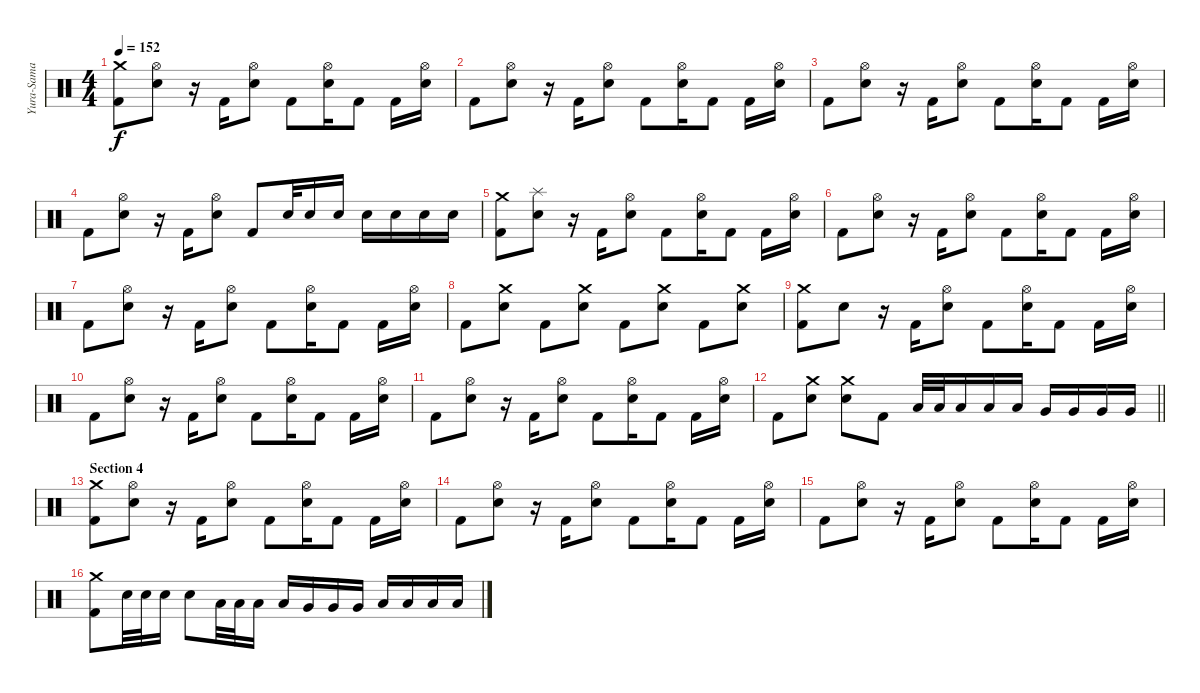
\track ("Yura-Sama" "Yura-Sama") {instrument percussion}
\staff {score}
\articulation defaults
\ts (4 4)
\tempo 152
\clef neutral
\ks c
("Kick (hit) 2" "Crash medium (hit)").8{dy f} ("Electric Snare (hit)" "Hi-Hat (open)").8 r.16 "Kick (hit) 2".16 ("Electric Snare (hit)" "Hi-Hat (open)").8 "Kick (hit) 2".8 ("Electric Snare (hit)" "Hi-Hat (open)").16 "Kick (hit) 2".8 "Kick (hit) 2".16 ("Electric Snare (hit)" "Hi-Hat (open)").16 |
"Kick (hit) 2".8 ("Electric Snare (hit)" "Hi-Hat (open)").8 r.16 "Kick (hit) 2".16 ("Electric Snare (hit)" "Hi-Hat (open)").8 "Kick (hit) 2".8 ("Electric Snare (hit)" "Hi-Hat (open)").16 "Kick (hit) 2".8 "Kick (hit) 2".16 ("Electric Snare (hit)" "Hi-Hat (open)").16 |
"Kick (hit) 2".8 ("Electric Snare (hit)" "Hi-Hat (open)").8 r.16 "Kick (hit) 2".16 ("Electric Snare (hit)" "Hi-Hat (open)").8 "Kick (hit) 2".8 ("Electric Snare (hit)" "Hi-Hat (open)").16 "Kick (hit) 2".8 "Kick (hit) 2".16 ("Electric Snare (hit)" "Hi-Hat (open)").16 |
"Kick (hit) 2".8 ("Electric Snare (hit)" "Hi-Hat (open)").8 r.16 "Kick (hit) 2".16 ("Electric Snare (hit)" "Hi-Hat (open)").8 "Kick (hit) 2".8 "Electric Snare (hit)".32 "Electric Snare (hit)".16 "Electric Snare (hit)".16 "Electric Snare (hit)".16 "Electric Snare (hit)".16 "Electric Snare (hit)".16 "Electric Snare (hit)".16 |
("Kick (hit) 2" "Crash medium (hit)").8 ("Electric Snare (hit)" "Splash (hit)").8 r.16 "Kick (hit) 2".16 ("Electric Snare (hit)" "Hi-Hat (open)").8 "Kick (hit) 2".8 ("Electric Snare (hit)" "Hi-Hat (open)").16 "Kick (hit) 2".8 "Kick (hit) 2".16 ("Electric Snare (hit)" "Hi-Hat (open)").16 |
"Kick (hit) 2".8 ("Electric Snare (hit)" "Hi-Hat (open)").8 r.16 "Kick (hit) 2".16 ("Electric Snare (hit)" "Hi-Hat (open)").8 "Kick (hit) 2".8 ("Electric Snare (hit)" "Hi-Hat (open)").16 "Kick (hit) 2".8 "Kick (hit) 2".16 ("Electric Snare (hit)" "Hi-Hat (open)").16 |
"Kick (hit) 2".8 ("Electric Snare (hit)" "Hi-Hat (open)").8 r.16 "Kick (hit) 2".16 ("Electric Snare (hit)" "Hi-Hat (open)").8 "Kick (hit) 2".8 ("Electric Snare (hit)" "Hi-Hat (open)").16 "Kick (hit) 2".8 "Kick (hit) 2".16 ("Electric Snare (hit)" "Hi-Hat (open)").16 |
"Kick (hit) 2".8 ("Electric Snare (hit)" "Crash medium (hit)").8 "Kick (hit) 2".8 ("Electric Snare (hit)" "Crash medium (hit)").8 "Kick (hit) 2".8 ("Electric Snare (hit)" "Crash medium (hit)").8 "Kick (hit) 2".8 ("Electric Snare (hit)" "Crash medium (hit)").8 |
("Kick (hit) 2" "Crash medium (hit)").8 "Electric Snare (hit)".8 r.16 "Kick (hit) 2".16 ("Electric Snare (hit)" "Hi-Hat (open)").8 "Kick (hit) 2".8 ("Electric Snare (hit)" "Hi-Hat (open)").16 "Kick (hit) 2".8 "Kick (hit) 2".16 ("Electric Snare (hit)" "Hi-Hat (open)").16 |
"Kick (hit) 2".8 ("Electric Snare (hit)" "Hi-Hat (open)").8 r.16 "Kick (hit) 2".16 ("Electric Snare (hit)" "Hi-Hat (open)").8 "Kick (hit) 2".8 ("Electric Snare (hit)" "Hi-Hat (open)").16 "Kick (hit) 2".8 "Kick (hit) 2".16 ("Electric Snare (hit)" "Hi-Hat (open)").16 |
"Kick (hit) 2".8 ("Electric Snare (hit)" "Hi-Hat (open)").8 r.16 "Kick (hit) 2".16 ("Electric Snare (hit)" "Hi-Hat (open)").8 "Kick (hit) 2".8 ("Electric Snare (hit)" "Hi-Hat (open)").16 "Kick (hit) 2".8 "Kick (hit) 2".16 ("Electric Snare (hit)" "Hi-Hat (open)").16 |
\barLineRight lightlight "Kick (hit) 2".8
("Electric Snare (hit)" "Crash medium (hit)").8 ("Electric Snare (hit)" "Crash medium (hit)").8 "Kick (hit) 2".8 "Low Tom (hit)".32 "Low Tom (hit)".32 "Low Tom (hit)".16 "Low Tom (hit)".16 "Low Tom (hit)".16 "Very Low Tom (hit)".16 "Very Low Tom (hit)".16 "Very Low Tom (hit)".16 "Very Low Tom (hit)".16 |
\section ("" "Section 4")
("Kick (hit) 2" "Crash medium (hit)").8 ("Electric Snare (hit)" "Hi-Hat (open)").8 r.16 "Kick (hit) 2".16 ("Electric Snare (hit)" "Hi-Hat (open)").8 "Kick (hit) 2".8 ("Electric Snare (hit)" "Hi-Hat (open)").16 "Kick (hit) 2".8 "Kick (hit) 2".16 ("Electric Snare (hit)" "Hi-Hat (open)").16 |
"Kick (hit) 2".8 ("Electric Snare (hit)" "Hi-Hat (open)").8 r.16 "Kick (hit) 2".16 ("Electric Snare (hit)" "Hi-Hat (open)").8 "Kick (hit) 2".8 ("Electric Snare (hit)" "Hi-Hat (open)").16 "Kick (hit) 2".8 "Kick (hit) 2".16 ("Electric Snare (hit)" "Hi-Hat (open)").16 |
"Kick (hit) 2".8 ("Electric Snare (hit)" "Hi-Hat (open)").8 r.16 "Kick (hit) 2".16 ("Electric Snare (hit)" "Hi-Hat (open)").8 "Kick (hit) 2".8 ("Electric Snare (hit)" "Hi-Hat (open)").16 "Kick (hit) 2".8 "Kick (hit) 2".16 ("Electric Snare (hit)" "Hi-Hat (open)").16 |
("Kick (hit) 2" "Crash medium (hit)").8 "Electric Snare (hit)".32 "Electric Snare (hit)".32 "Electric Snare (hit)".16 "Electric Snare (hit)".8 "Low Tom (hit)".32 "Low Tom (hit)".32 "Low Tom (hit)".16 "Low Tom (hit)".16 "Very Low Tom (hit)".16 "Very Low Tom (hit)".16 "Very Low Tom (hit)".16 "Low Floor Tom (hit)".16 "Low Floor Tom (hit)".16 "Low Floor Tom (hit)".16 "Low Floor Tom (hit)".16
